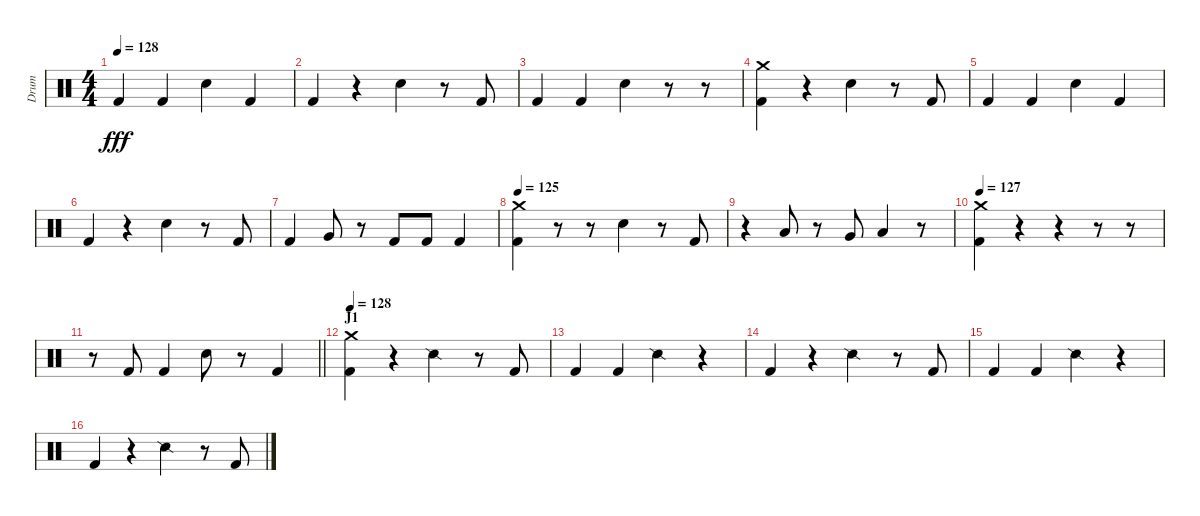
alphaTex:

\track ("Drum" "Drum") {instrument percussion}
\staff {score}
\articulation defaults
\ts (4 4)
\tempo 128
\clef neutral
\ks c "Kick (hit) 2".4{dy fff} "Kick (hit) 2".4 "Electric Snare (hit)".4 "Kick (hit) 2".4
|
"Kick (hit) 2".4 r.4 "Electric Snare (hit)".4 r.8 "Kick (hit) 2".8 |
"Kick (hit) 2".4 "Kick (hit) 2".4 "Electric Snare (hit)".4 r.8 r.8 |
("Kick (hit) 2" "Crash medium (hit)").4 r.4 "Electric Snare (hit)".4 r.8 "Kick (hit) 2".8 |
"Kick (hit) 2".4 "Kick (hit) 2".4 "Electric Snare (hit)".4 "Kick (hit) 2".4 |
"Kick (hit) 2".4 r.4 "Electric Snare (hit)".4 r.8 "Kick (hit) 2".8 |
"Kick (hit) 2".4 "Very Low Tom (hit)".8 r.8 "Kick (hit) 2".8 "Kick (hit) 2".8 "Kick (hit) 2".4 |
\tempo 125
("Kick (hit) 2" "Crash medium (hit)").4 r.8 r.8 "Electric Snare (hit)".4 r.8 "Kick (hit) 2".8 |
r.4 "Low Tom (hit)".8 r.8 "Very Low Tom (hit)".8 "Low Tom (hit)".4 r.8 |
\tempo 127
("Kick (hit) 2" "Crash medium (hit)").4 r.4 r.4 r.8 r.8 |
\barLineRight lightlight
r.8 "Kick (hit) 2".8 "Kick (hit) 2".4 "Electric Snare (hit)".8 r.8 "Kick (hit) 2".4 |
\section ("" "J1")
\tempo 128
("Kick (hit) 2" "Crash medium (hit)").4 r.4 "Snare (side stick) 2".4 r.8 "Kick (hit) 2".8 |
"Kick (hit) 2".4 "Kick (hit) 2".4 "Snare (side stick) 2".4 r.4 |
"Kick (hit) 2".4 r.4 "Snare (side stick) 2".4 r.8 "Kick (hit) 2".8 |
"Kick (hit) 2".4 "Kick (hit) 2".4 "Snare (side stick) 2".4 r.4 |
"Kick (hit) 2".4 r.4 "Snare (side stick) 2".4 r.8 "Kick (hit) 2".8
